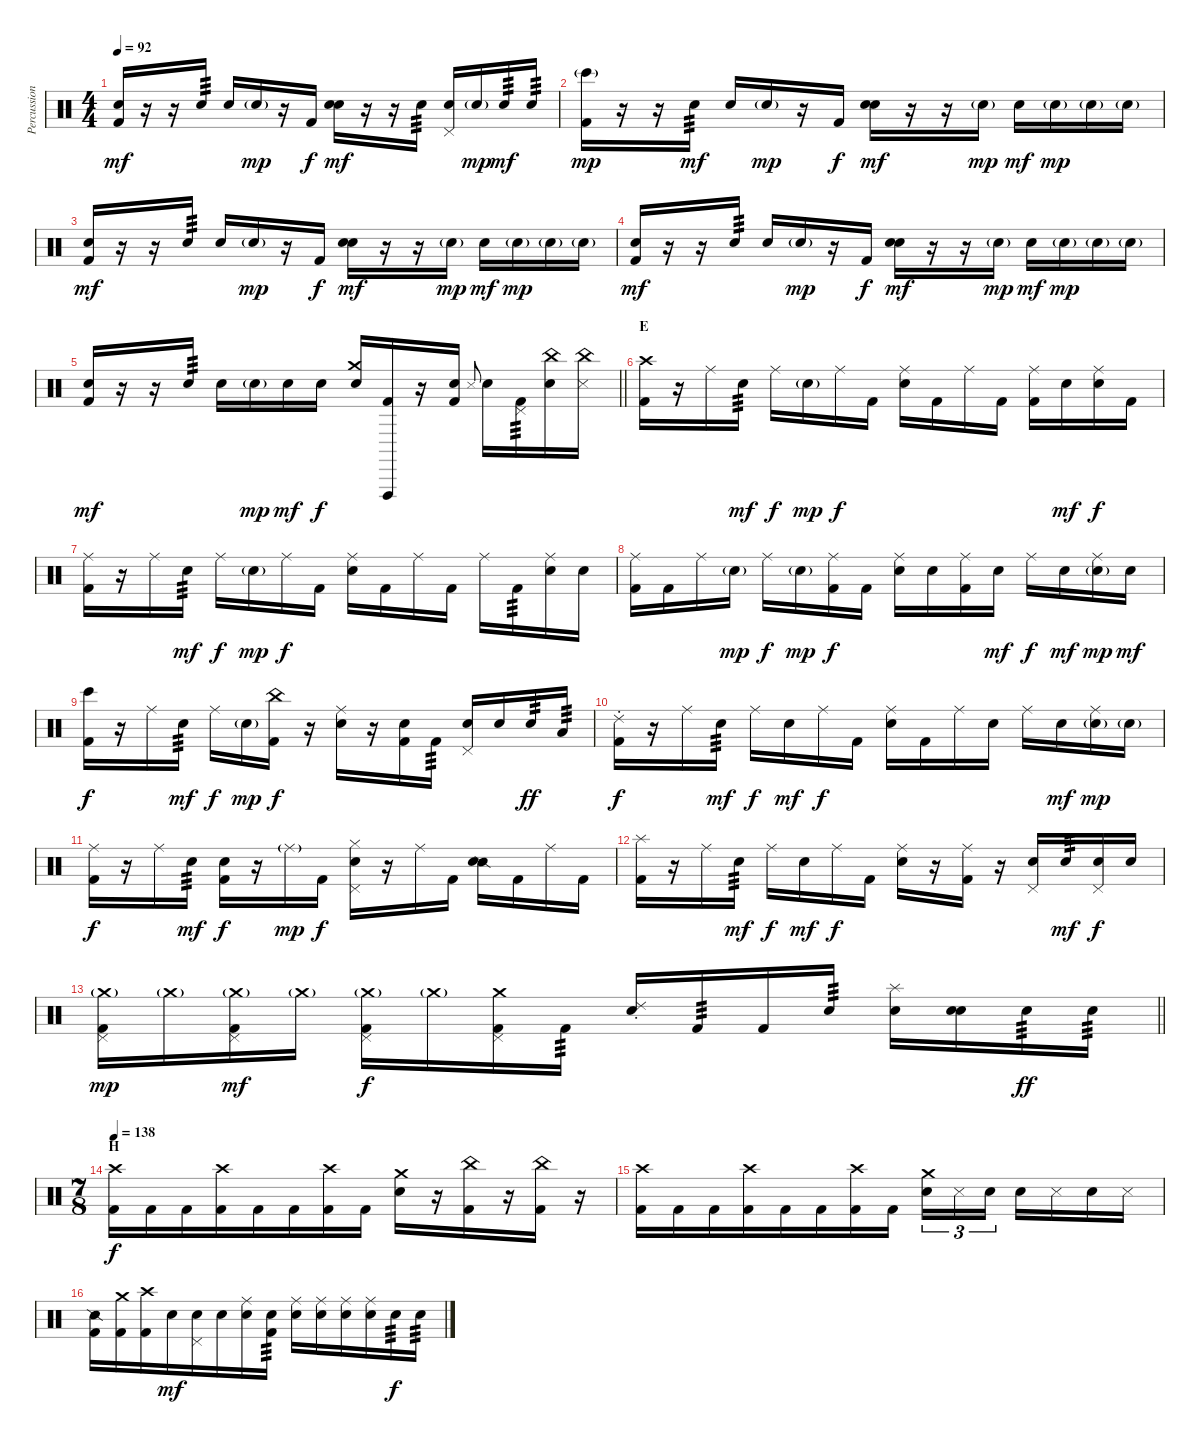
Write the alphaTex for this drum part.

\track ("Percussion" "Percussion") {instrument percussion}
\staff {score}
\articulation defaults
\ts (4 4)
\tempo 92
\clef neutral
\ks c
("Snare (hit)" "Kick (hit) 2").16{dy mf} r.16 r.16 "Snare (hit) 2".16{tp 3} "Snare (hit)".16 "Snare (hit) 2"{g}.16{dy mp} r.16 "Kick (hit) 2".16{dy f} ("Snare (hit)" "Snare (hit) 2").16{dy mf} r.16 r.16 "Snare (hit) 2".16{tp 3} ("Pedal Hi-Hat (hit)" "Snare (hit) 2").16 "Snare (hit) 2"{g}.16{dy mp} "Snare (hit) 2".16{tp 3 dy mf} "Snare (hit) 2".16{tp 3} |
("Bongo High (hit)"{g} "Kick (hit) 2").16{dy mp} r.16 r.16 "Snare (hit) 2".16{tp 3 dy mf} "Snare (hit)".16 "Snare (hit) 2"{g}.16{dy mp} r.16 "Kick (hit) 2".16{dy f} ("Snare (hit)" "Snare (hit) 2").16{dy mf} r.16 r.16 "Snare (hit) 2"{g}.16{dy mp} "Snare (hit)".16{dy mf} "Snare (hit) 2"{g}.16{dy mp} "Snare (hit) 2"{g}.16 "Snare (hit) 2"{g}.16 |
("Snare (hit)" "Kick (hit) 2").16{dy mf} r.16 r.16 "Snare (hit) 2".16{tp 3} "Snare (hit)".16 "Snare (hit) 2"{g}.16{dy mp} r.16 "Kick (hit) 2".16{dy f} ("Snare (hit)" "Snare (hit) 2").16{dy mf} r.16 r.16 "Snare (hit) 2"{g}.16{dy mp} "Snare (hit)".16{dy mf} "Snare (hit) 2"{g}.16{dy mp} "Snare (hit) 2"{g}.16 "Snare (hit) 2"{g}.16 |
("Snare (hit)" "Kick (hit) 2").16{dy mf} r.16 r.16 "Snare (hit) 2".16{tp 3} "Snare (hit)".16 "Snare (hit) 2"{g}.16{dy mp} r.16 "Kick (hit) 2".16{dy f} ("Snare (hit)" "Snare (hit) 2").16{dy mf} r.16 r.16 "Snare (hit) 2"{g}.16{dy mp} "Snare (hit)".16{dy mf} "Snare (hit) 2"{g}.16{dy mp} "Snare (hit) 2"{g}.16 "Snare (hit) 2"{g}.16 |
\barLineRight lightlight
("Snare (hit)" "Kick (hit) 2").16{dy mf} r.16 r.16 "Snare (hit) 2".16{tp 3} "Snare (hit)".16 "Snare (hit) 2"{g}.16{dy mp} "Snare (hit) 2".16{dy mf} "Snare (hit) 2".16{dy f} ("Crash medium (hit)" "Snare (hit) 2").16 ("Vibraslap (hit)" "Kick (hit) 2").16 r.16 ("Snare (hit)" "Kick (hit) 2").16 "Metronome (hit)".8{gr onbeat} "Snare (hit) 2".16 ("Pedal Hi-Hat (hit)" "Kick (hit) 2").16{tp 3} ("China (hit)" "Snare (hit) 2").16 ("China (hit)" "Metronome (hit)").16 |
\section ("" "E")
("Crash high (hit)" "Kick (hit) 2").16 r.16 "Ride (middle)".16 "Snare (hit) 2".16{tp 3 dy mf} "Ride (middle)".16{dy f} "Snare (hit) 2"{g}.16{dy mp} "Ride (middle)".16{dy f} "Kick (hit) 2".16 ("Ride (middle)" "Snare (hit) 2").16 "Kick (hit) 2".16 "Ride (middle)".16 "Kick (hit) 2".16 ("Ride (middle)" "Kick (hit) 2").16 "Snare (hit) 2".16{dy mf} ("Ride (middle)" "Snare (hit) 2").16{dy f} "Kick (hit) 2".16 |
("Ride (middle)" "Kick (hit) 2").16 r.16 "Ride (middle)".16 "Snare (hit) 2".16{tp 3 dy mf} "Ride (middle)".16{dy f} "Snare (hit) 2"{g}.16{dy mp} "Ride (middle)".16{dy f} "Kick (hit) 2".16 ("Ride (middle)" "Snare (hit) 2").16 "Kick (hit) 2".16 "Ride (middle)".16 "Kick (hit) 2".16 "Ride (middle)".16 "Kick (hit) 2".16{tp 3} ("Ride (middle)" "Snare (hit) 2").16 "Snare (hit) 2".16 |
("Ride (middle)" "Kick (hit) 2").16 "Kick (hit) 2".16 "Ride (middle)".16 "Snare (hit) 2"{g}.16{dy mp} "Ride (middle)".16{dy f} "Snare (hit) 2"{g}.16{dy mp} ("Ride (middle)" "Kick (hit) 2").16{dy f} "Kick (hit) 2".16 ("Ride (middle)" "Snare (hit) 2").16 "Snare (hit) 2".16 ("Ride (middle)" "Kick (hit) 2").16 "Snare (hit) 2".16{dy mf} "Ride (middle)".16{dy f} "Snare (hit) 2".16{dy mf} ("Ride (middle)" "Snare (hit) 2"{g}).16{dy mp} "Snare (hit) 2".16{dy mf} |
("Bongo High (hit)" "Kick (hit) 2").16{dy f} r.16 "Ride (middle)".16 "Snare (hit) 2".16{tp 3 dy mf} "Ride (middle)".16{dy f} "Snare (hit) 2"{g}.16{dy mp} ("China (hit)" "Kick (hit) 2").16{dy f} r.16 ("Ride (middle)" "Snare (hit) 2").16 r.16 ("Snare (hit)" "Kick (hit) 2").16 "Kick (hit) 2".16{tp 3} ("Pedal Hi-Hat (hit)" "Snare (hit) 2").16 "Snare (hit) 2".16 "Snare (hit) 2".16{tp 3 dy ff} "Low Tom (hit)".16{tp 3} |
("Ride (choke) 2" "Kick (hit) 2").16{dy f} r.16 "Ride (middle)".16 "Snare (hit) 2".16{tp 3 dy mf} "Ride (middle)".16{dy f} "Snare (hit) 2".16{dy mf} "Ride (middle)".16{dy f} "Kick (hit) 2".16 ("Ride (middle)" "Snare (hit) 2").16 "Kick (hit) 2".16 "Ride (middle)".16 "Snare (hit) 2".16 "Ride (middle)".16 "Snare (hit) 2".16{dy mf} ("Ride (middle)" "Snare (hit) 2"{g}).16{dy mp} "Snare (hit) 2"{g}.16 |
("Ride (middle)" "Kick (hit) 2").16{dy f} r.16 "Ride (middle)".16 "Snare (hit) 2".16{tp 3 dy mf} ("Snare (hit)" "Kick (hit) 2").16{dy f} r.16 "Ride (middle)"{g}.16{dy mp} "Kick (hit) 2".16{dy f} ("Hi-Hat (closed)" "Pedal Hi-Hat (hit)" "Snare (hit) 2").16 r.16 "Ride (middle)".16 "Kick (hit) 2".16 ("Snare (side stick) 2" "Snare (hit) 2").16 "Kick (hit) 2".16 "Ride (middle)".16 "Kick (hit) 2".16 |
("Splash (hit)" "Kick (hit) 2").16 r.16 "Ride (middle)".16 "Snare (hit) 2".16{tp 3 dy mf} "Ride (middle)".16{dy f} "Snare (hit) 2".16{dy mf} "Ride (middle)".16{dy f} "Kick (hit) 2".16 ("Ride (middle)" "Snare (hit) 2").16 r.16 ("Ride (middle)" "Kick (hit) 2").16 r.16 ("Pedal Hi-Hat (hit)" "Snare (hit) 2").16 "Snare (hit) 2".16{tp 3 dy mf} ("Pedal Hi-Hat (hit)" "Snare (hit) 2").16{dy f} "Snare (hit) 2".16 |
\barLineRight lightlight
("Crash medium (hit)"{g} "Pedal Hi-Hat (hit)" "Kick (hit) 2").16{dy mp} "Crash medium (hit)"{g}.16 ("Crash medium (hit)"{g} "Pedal Hi-Hat (hit)" "Kick (hit) 2").16{dy mf} "Crash medium (hit)"{g}.16 ("Crash medium (hit)"{g} "Pedal Hi-Hat (hit)" "Kick (hit) 2").16{dy f} "Crash medium (hit)"{g}.16 ("Crash medium (hit)" "Pedal Hi-Hat (hit)" "Kick (hit) 2").16 "Kick (hit) 2".16{tp 3} ("Ride (choke) 2" "Snare (hit) 2").16 "Kick (hit) 2".16{tp 3} "Kick (hit) 2".16 "Snare (hit) 2".16{tp 3} ("Splash (hit)" "Snare (hit) 2").16 ("Snare (hit)" "Snare (hit) 2").16 "Snare (hit) 2".16{tp 3 dy ff} "Snare (hit) 2".16{tp 3} |
\ts (7 8)
\section ("" "H")
\tempo 138
("Crash high (hit)" "Kick (hit) 2").16{dy f} "Kick (hit) 2".16 "Kick (hit) 2".16 ("Crash high (hit)" "Kick (hit) 2").16 "Kick (hit) 2".16 "Kick (hit) 2".16 ("Crash high (hit)" "Kick (hit) 2").16 "Kick (hit) 2".16 ("Crash medium (hit)" "Snare (hit) 2").16 r.16 ("China (hit)" "Kick (hit) 2").16 r.16 ("China (hit)" "Kick (hit) 2").16 r.16 |
("Crash high (hit)" "Kick (hit) 2").16 "Kick (hit) 2".16 "Kick (hit) 2".16 ("Crash high (hit)" "Kick (hit) 2").16 "Kick (hit) 2".16 "Kick (hit) 2".16 ("Crash high (hit)" "Kick (hit) 2").16 "Kick (hit) 2".16 ("Crash medium (hit)" "Snare (hit) 2").16{tu (3 2)} "Metronome (hit)".16{tu (3 2)} "Snare (hit) 2".16{tu (3 2)} "Snare (hit) 2".16 "Metronome (hit)".16 "Snare (hit) 2".16 "Metronome (hit)".16 |
("Snare (side stick) 2" "Kick (hit) 2").16 ("Crash medium (hit)" "Kick (hit) 2").16 ("Crash high (hit)" "Kick (hit) 2").16 "Snare (hit) 2".16{dy mf} ("Pedal Hi-Hat (hit)" "Snare (hit) 2").16 "Snare (hit) 2".16 ("Ride (middle)" "Snare (hit) 2").16 ("Snare (hit) 2" "Kick (hit) 2").16{tp 3} ("Ride (middle)" "Snare (hit) 2").16 ("Ride (middle)" "Snare (hit) 2").16 ("Ride (middle)" "Snare (hit) 2").16 ("Ride (middle)" "Snare (hit) 2").16 "Snare (hit) 2".16{tp 3 dy f} "Snare (hit) 2".16{tp 3}
